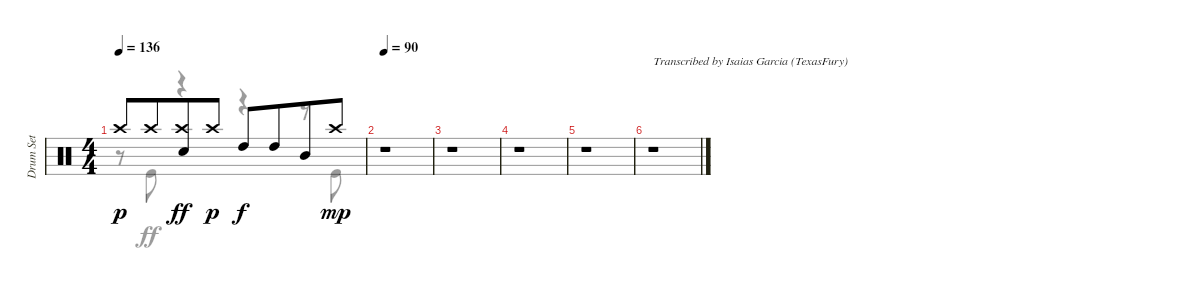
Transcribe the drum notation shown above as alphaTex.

\track ("Drum Set" "Drum Set") {instrument percussion}
\staff {score}
\articulation defaults
\voice
\ts (4 4)
\tempo 136
\clef neutral
\ks c "Crash high (hit)".8{dy p} "Crash high (hit)".8{beam merge}
("Crash high (hit)" "Electric Snare (hit)").8{dy ff} "Crash high (hit)".8{dy p} "High Tom (hit)".8{dy f} "High Tom (hit)".8{beam merge} "Mid Tom (hit)".8 "Crash high (hit)".8{dy mp} |
\tempo 90
r.1 |
r.1{volume 0} |
r.1 |
r.1 |
r.1{txt "Transcribed by Isaias Garcia (TexasFury)"}
\voice
\clef neutral
\ottava regular
\simile none
\ks c
r.8{dy ff} "Kick (hit)".8 r.4 r.4 r.8 "Kick (hit)".8 |
|
|
|
|
